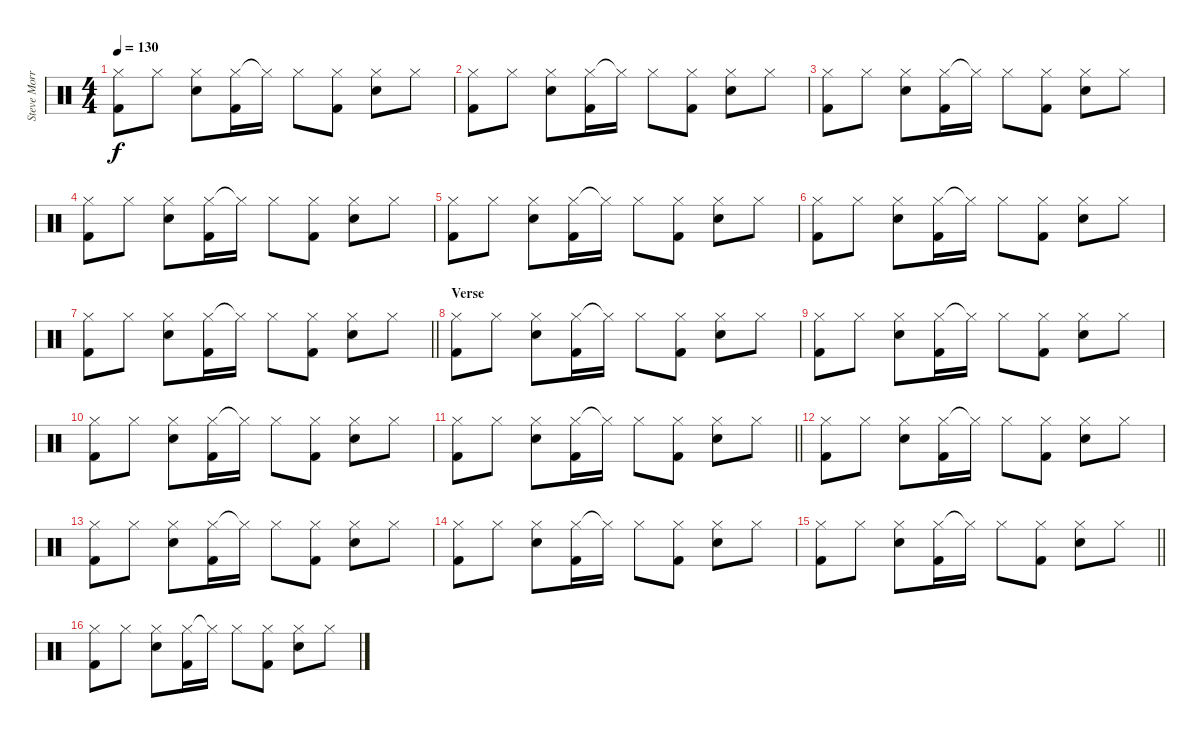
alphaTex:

\track ("Steve Morris" "Steve Morr") {instrument percussion}
\staff {score}
\articulation defaults
\ts (4 4)
\tempo 130
\clef neutral
\ks c
("Hi-Hat (closed)" "Kick (hit) 2").8{dy f} "Hi-Hat (closed)".8 ("Hi-Hat (closed)" "Electric Snare (hit)").8 ("Hi-Hat (closed)" "Kick (hit) 2").16 "Hi-Hat (closed)"{t}.16 "Hi-Hat (closed)".8 ("Hi-Hat (closed)" "Kick (hit) 2").8 ("Hi-Hat (closed)" "Electric Snare (hit)").8 "Hi-Hat (closed)".8 |
("Hi-Hat (closed)" "Kick (hit) 2").8 "Hi-Hat (closed)".8 ("Hi-Hat (closed)" "Electric Snare (hit)").8 ("Hi-Hat (closed)" "Kick (hit) 2").16 "Hi-Hat (closed)"{t}.16 "Hi-Hat (closed)".8 ("Hi-Hat (closed)" "Kick (hit) 2").8 ("Hi-Hat (closed)" "Electric Snare (hit)").8 "Hi-Hat (closed)".8 |
("Hi-Hat (closed)" "Kick (hit) 2").8 "Hi-Hat (closed)".8 ("Hi-Hat (closed)" "Electric Snare (hit)").8 ("Hi-Hat (closed)" "Kick (hit) 2").16 "Hi-Hat (closed)"{t}.16 "Hi-Hat (closed)".8 ("Hi-Hat (closed)" "Kick (hit) 2").8 ("Hi-Hat (closed)" "Electric Snare (hit)").8 "Hi-Hat (closed)".8 |
("Hi-Hat (closed)" "Kick (hit) 2").8 "Hi-Hat (closed)".8 ("Hi-Hat (closed)" "Electric Snare (hit)").8 ("Hi-Hat (closed)" "Kick (hit) 2").16 "Hi-Hat (closed)"{t}.16 "Hi-Hat (closed)".8 ("Hi-Hat (closed)" "Kick (hit) 2").8 ("Hi-Hat (closed)" "Electric Snare (hit)").8 "Hi-Hat (closed)".8 |
("Hi-Hat (closed)" "Kick (hit) 2").8 "Hi-Hat (closed)".8 ("Hi-Hat (closed)" "Electric Snare (hit)").8 ("Hi-Hat (closed)" "Kick (hit) 2").16 "Hi-Hat (closed)"{t}.16 "Hi-Hat (closed)".8 ("Hi-Hat (closed)" "Kick (hit) 2").8 ("Hi-Hat (closed)" "Electric Snare (hit)").8 "Hi-Hat (closed)".8 |
("Hi-Hat (closed)" "Kick (hit) 2").8 "Hi-Hat (closed)".8 ("Hi-Hat (closed)" "Electric Snare (hit)").8 ("Hi-Hat (closed)" "Kick (hit) 2").16 "Hi-Hat (closed)"{t}.16 "Hi-Hat (closed)".8 ("Hi-Hat (closed)" "Kick (hit) 2").8 ("Hi-Hat (closed)" "Electric Snare (hit)").8 "Hi-Hat (closed)".8 |
\barLineRight lightlight
("Hi-Hat (closed)" "Kick (hit) 2").8 "Hi-Hat (closed)".8 ("Hi-Hat (closed)" "Electric Snare (hit)").8 ("Hi-Hat (closed)" "Kick (hit) 2").16 "Hi-Hat (closed)"{t}.16 "Hi-Hat (closed)".8 ("Hi-Hat (closed)" "Kick (hit) 2").8 ("Hi-Hat (closed)" "Electric Snare (hit)").8 "Hi-Hat (closed)".8 |
\section ("" "Verse")
("Hi-Hat (closed)" "Kick (hit) 2").8 "Hi-Hat (closed)".8 ("Hi-Hat (closed)" "Electric Snare (hit)").8 ("Hi-Hat (closed)" "Kick (hit) 2").16 "Hi-Hat (closed)"{t}.16 "Hi-Hat (closed)".8 ("Hi-Hat (closed)" "Kick (hit) 2").8 ("Hi-Hat (closed)" "Electric Snare (hit)").8 "Hi-Hat (closed)".8 |
("Hi-Hat (closed)" "Kick (hit) 2").8 "Hi-Hat (closed)".8 ("Hi-Hat (closed)" "Electric Snare (hit)").8 ("Hi-Hat (closed)" "Kick (hit) 2").16 "Hi-Hat (closed)"{t}.16 "Hi-Hat (closed)".8 ("Hi-Hat (closed)" "Kick (hit) 2").8 ("Hi-Hat (closed)" "Electric Snare (hit)").8 "Hi-Hat (closed)".8 |
("Hi-Hat (closed)" "Kick (hit) 2").8 "Hi-Hat (closed)".8 ("Hi-Hat (closed)" "Electric Snare (hit)").8 ("Hi-Hat (closed)" "Kick (hit) 2").16 "Hi-Hat (closed)"{t}.16 "Hi-Hat (closed)".8 ("Hi-Hat (closed)" "Kick (hit) 2").8 ("Hi-Hat (closed)" "Electric Snare (hit)").8 "Hi-Hat (closed)".8 |
\barLineRight lightlight
("Hi-Hat (closed)" "Kick (hit) 2").8 "Hi-Hat (closed)".8 ("Hi-Hat (closed)" "Electric Snare (hit)").8 ("Hi-Hat (closed)" "Kick (hit) 2").16 "Hi-Hat (closed)"{t}.16 "Hi-Hat (closed)".8 ("Hi-Hat (closed)" "Kick (hit) 2").8 ("Hi-Hat (closed)" "Electric Snare (hit)").8 "Hi-Hat (closed)".8 |
("Hi-Hat (closed)" "Kick (hit) 2").8 "Hi-Hat (closed)".8 ("Hi-Hat (closed)" "Electric Snare (hit)").8 ("Hi-Hat (closed)" "Kick (hit) 2").16 "Hi-Hat (closed)"{t}.16 "Hi-Hat (closed)".8 ("Hi-Hat (closed)" "Kick (hit) 2").8 ("Hi-Hat (closed)" "Electric Snare (hit)").8 "Hi-Hat (closed)".8 |
("Hi-Hat (closed)" "Kick (hit) 2").8 "Hi-Hat (closed)".8 ("Hi-Hat (closed)" "Electric Snare (hit)").8 ("Hi-Hat (closed)" "Kick (hit) 2").16 "Hi-Hat (closed)"{t}.16 "Hi-Hat (closed)".8 ("Hi-Hat (closed)" "Kick (hit) 2").8 ("Hi-Hat (closed)" "Electric Snare (hit)").8 "Hi-Hat (closed)".8 |
("Hi-Hat (closed)" "Kick (hit) 2").8 "Hi-Hat (closed)".8 ("Hi-Hat (closed)" "Electric Snare (hit)").8 ("Hi-Hat (closed)" "Kick (hit) 2").16 "Hi-Hat (closed)"{t}.16 "Hi-Hat (closed)".8 ("Hi-Hat (closed)" "Kick (hit) 2").8 ("Hi-Hat (closed)" "Electric Snare (hit)").8 "Hi-Hat (closed)".8 |
\barLineRight lightlight
("Hi-Hat (closed)" "Kick (hit) 2").8 "Hi-Hat (closed)".8 ("Hi-Hat (closed)" "Electric Snare (hit)").8 ("Hi-Hat (closed)" "Kick (hit) 2").16 "Hi-Hat (closed)"{t}.16 "Hi-Hat (closed)".8 ("Hi-Hat (closed)" "Kick (hit) 2").8 ("Hi-Hat (closed)" "Electric Snare (hit)").8 "Hi-Hat (closed)".8 |
("Hi-Hat (closed)" "Kick (hit) 2").8 "Hi-Hat (closed)".8 ("Hi-Hat (closed)" "Electric Snare (hit)").8 ("Hi-Hat (closed)" "Kick (hit) 2").16 "Hi-Hat (closed)"{t}.16 "Hi-Hat (closed)".8 ("Hi-Hat (closed)" "Kick (hit) 2").8 ("Hi-Hat (closed)" "Electric Snare (hit)").8 "Hi-Hat (closed)".8
